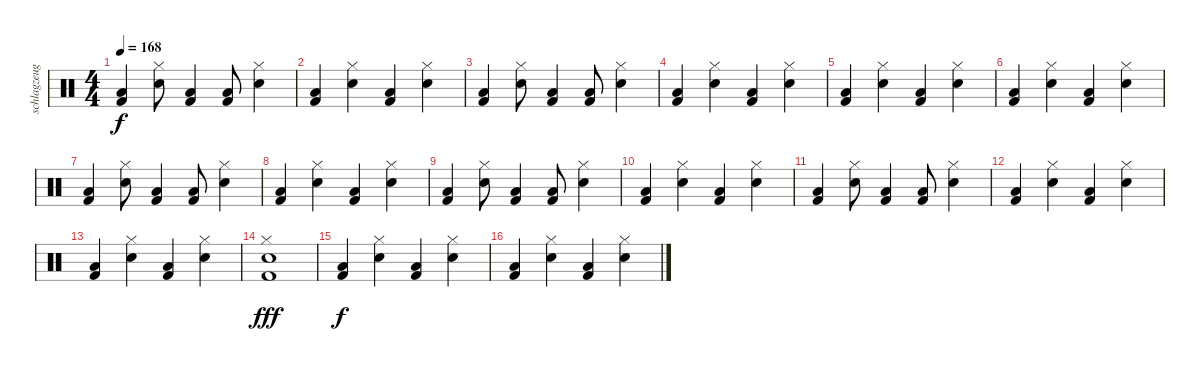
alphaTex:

\track ("schlagzeug" "schlagzeug") {instrument percussion}
\staff {score}
\articulation defaults
\ts (4 4)
\tempo 168
\clef neutral
\ks c
("Low Floor Tom (hit)" "Kick (hit) 2").4{dy f} ("Electric Snare (hit)" "Hi-Hat (closed)").8 ("Low Floor Tom (hit)" "Kick (hit) 2").4 ("Low Floor Tom (hit)" "Kick (hit) 2").8 ("Electric Snare (hit)" "Hi-Hat (closed)").4 |
("Low Floor Tom (hit)" "Kick (hit) 2").4 ("Electric Snare (hit)" "Hi-Hat (closed)").4 ("Low Floor Tom (hit)" "Kick (hit) 2").4 ("Electric Snare (hit)" "Hi-Hat (closed)").4 |
("Low Floor Tom (hit)" "Kick (hit) 2").4 ("Electric Snare (hit)" "Hi-Hat (closed)").8 ("Low Floor Tom (hit)" "Kick (hit) 2").4 ("Low Floor Tom (hit)" "Kick (hit) 2").8 ("Electric Snare (hit)" "Hi-Hat (closed)").4 |
("Low Floor Tom (hit)" "Kick (hit) 2").4 ("Electric Snare (hit)" "Hi-Hat (closed)").4 ("Low Floor Tom (hit)" "Kick (hit) 2").4 ("Electric Snare (hit)" "Hi-Hat (closed)").4 |
("Low Floor Tom (hit)" "Kick (hit) 2").4 ("Electric Snare (hit)" "Hi-Hat (closed)").4 ("Low Floor Tom (hit)" "Kick (hit) 2").4 ("Electric Snare (hit)" "Hi-Hat (closed)").4 |
("Low Floor Tom (hit)" "Kick (hit) 2").4 ("Electric Snare (hit)" "Hi-Hat (closed)").4 ("Low Floor Tom (hit)" "Kick (hit) 2").4 ("Electric Snare (hit)" "Hi-Hat (closed)").4 |
("Low Floor Tom (hit)" "Kick (hit) 2").4 ("Electric Snare (hit)" "Hi-Hat (closed)").8 ("Low Floor Tom (hit)" "Kick (hit) 2").4 ("Low Floor Tom (hit)" "Kick (hit) 2").8 ("Electric Snare (hit)" "Hi-Hat (closed)").4 |
("Low Floor Tom (hit)" "Kick (hit) 2").4 ("Electric Snare (hit)" "Hi-Hat (closed)").4 ("Low Floor Tom (hit)" "Kick (hit) 2").4 ("Electric Snare (hit)" "Hi-Hat (closed)").4 |
("Low Floor Tom (hit)" "Kick (hit) 2").4 ("Electric Snare (hit)" "Hi-Hat (closed)").8 ("Low Floor Tom (hit)" "Kick (hit) 2").4 ("Low Floor Tom (hit)" "Kick (hit) 2").8 ("Electric Snare (hit)" "Hi-Hat (closed)").4 |
("Low Floor Tom (hit)" "Kick (hit) 2").4 ("Electric Snare (hit)" "Hi-Hat (closed)").4 ("Low Floor Tom (hit)" "Kick (hit) 2").4 ("Electric Snare (hit)" "Hi-Hat (closed)").4 |
("Low Floor Tom (hit)" "Kick (hit) 2").4 ("Electric Snare (hit)" "Hi-Hat (closed)").8 ("Low Floor Tom (hit)" "Kick (hit) 2").4 ("Low Floor Tom (hit)" "Kick (hit) 2").8 ("Electric Snare (hit)" "Hi-Hat (closed)").4 |
("Low Floor Tom (hit)" "Kick (hit) 2").4 ("Electric Snare (hit)" "Hi-Hat (closed)").4 ("Low Floor Tom (hit)" "Kick (hit) 2").4 ("Electric Snare (hit)" "Hi-Hat (closed)").4 |
("Low Floor Tom (hit)" "Kick (hit) 2").4 ("Electric Snare (hit)" "Hi-Hat (closed)").4 ("Low Floor Tom (hit)" "Kick (hit) 2").4 ("Electric Snare (hit)" "Hi-Hat (closed)").4 |
("Electric Snare (hit)" "Hi-Hat (closed)" "Kick (hit) 2").1{dy fff} |
("Low Floor Tom (hit)" "Kick (hit) 2").4{dy f} ("Electric Snare (hit)" "Hi-Hat (closed)").4 ("Low Floor Tom (hit)" "Kick (hit) 2").4 ("Electric Snare (hit)" "Hi-Hat (closed)").4 |
("Low Floor Tom (hit)" "Kick (hit) 2").4 ("Electric Snare (hit)" "Hi-Hat (closed)").4 ("Low Floor Tom (hit)" "Kick (hit) 2").4 ("Electric Snare (hit)" "Hi-Hat (closed)").4
